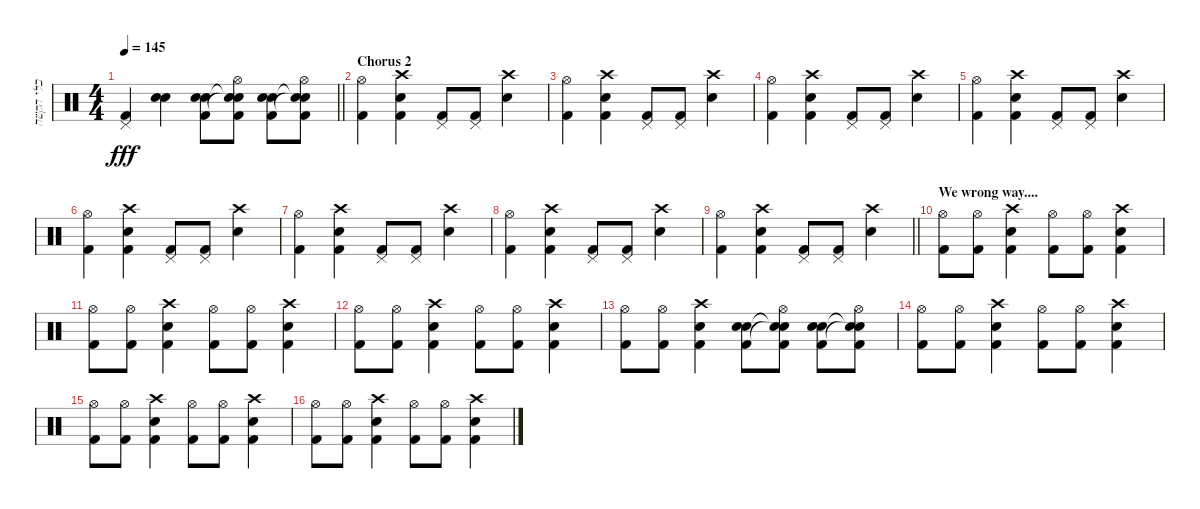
\track ("כלי הקשה" "כלי הקשה") {instrument percussion bank 127}
\staff {score}
\articulation defaults
\ts (4 4)
\tempo 145
\clef neutral
\barLineRight lightlight
\ks c
("Pedal Hi-Hat (hit)" "Kick (hit) 2").4{dy fff} ("Snare (hit) 2" "Snare (hit) 2").4 ("Snare (hit) 2" "Snare (hit) 2" "Kick (hit) 2").8 ("Hi-Hat (open)" "Snare (hit)"{t} "Snare (hit)"{t} "Kick (hit) 2").8 ("Snare (hit) 2" "Snare (hit) 2" "Kick (hit) 2").8 ("Hi-Hat (open)" "Snare (hit)"{t} "Snare (hit)"{t} "Kick (hit) 2").8 |
\section ("" "Chorus 2")
("Hi-Hat (open)" "Kick (hit) 2").4 ("Crash high (hit)" "Snare (hit) 2" "Kick (hit) 2").4 ("Pedal Hi-Hat (hit)" "Kick (hit) 2").8 ("Pedal Hi-Hat (hit)" "Kick (hit) 2").8 ("Crash high (hit)" "Snare (hit) 2").4 |
("Hi-Hat (open)" "Kick (hit) 2").4 ("Crash high (hit)" "Snare (hit) 2" "Kick (hit) 2").4 ("Pedal Hi-Hat (hit)" "Kick (hit) 2").8 ("Pedal Hi-Hat (hit)" "Kick (hit) 2").8 ("Crash high (hit)" "Snare (hit) 2").4 |
("Hi-Hat (open)" "Kick (hit) 2").4 ("Crash high (hit)" "Snare (hit) 2" "Kick (hit) 2").4 ("Pedal Hi-Hat (hit)" "Kick (hit) 2").8 ("Pedal Hi-Hat (hit)" "Kick (hit) 2").8 ("Crash high (hit)" "Snare (hit) 2").4 |
("Hi-Hat (open)" "Kick (hit) 2").4 ("Crash high (hit)" "Snare (hit) 2" "Kick (hit) 2").4 ("Pedal Hi-Hat (hit)" "Kick (hit) 2").8 ("Pedal Hi-Hat (hit)" "Kick (hit) 2").8 ("Crash high (hit)" "Snare (hit) 2").4 |
("Hi-Hat (open)" "Kick (hit) 2").4 ("Crash high (hit)" "Snare (hit) 2" "Kick (hit) 2").4 ("Pedal Hi-Hat (hit)" "Kick (hit) 2").8 ("Pedal Hi-Hat (hit)" "Kick (hit) 2").8 ("Crash high (hit)" "Snare (hit) 2").4 |
("Hi-Hat (open)" "Kick (hit) 2").4 ("Crash high (hit)" "Snare (hit) 2" "Kick (hit) 2").4 ("Pedal Hi-Hat (hit)" "Kick (hit) 2").8 ("Pedal Hi-Hat (hit)" "Kick (hit) 2").8 ("Crash high (hit)" "Snare (hit) 2").4 |
("Hi-Hat (open)" "Kick (hit) 2").4 ("Crash high (hit)" "Snare (hit) 2" "Kick (hit) 2").4 ("Pedal Hi-Hat (hit)" "Kick (hit) 2").8 ("Pedal Hi-Hat (hit)" "Kick (hit) 2").8 ("Crash high (hit)" "Snare (hit) 2").4 |
\barLineRight lightlight
("Hi-Hat (open)" "Kick (hit) 2").4 ("Crash high (hit)" "Snare (hit) 2" "Kick (hit) 2").4 ("Pedal Hi-Hat (hit)" "Kick (hit) 2").8 ("Pedal Hi-Hat (hit)" "Kick (hit) 2").8 ("Crash high (hit)" "Snare (hit) 2").4 |
\section ("" "We wrong way....")
("Hi-Hat (open)" "Kick (hit) 2").8 ("Hi-Hat (open)" "Kick (hit) 2").8 ("Crash high (hit)" "Snare (hit) 2" "Kick (hit) 2").4 ("Hi-Hat (open)" "Kick (hit) 2").8 ("Hi-Hat (open)" "Kick (hit) 2").8 ("Crash high (hit)" "Snare (hit) 2" "Kick (hit) 2").4 |
("Hi-Hat (open)" "Kick (hit) 2").8 ("Hi-Hat (open)" "Kick (hit) 2").8 ("Crash high (hit)" "Snare (hit) 2" "Kick (hit) 2").4 ("Hi-Hat (open)" "Kick (hit) 2").8 ("Hi-Hat (open)" "Kick (hit) 2").8 ("Crash high (hit)" "Snare (hit) 2" "Kick (hit) 2").4 |
("Hi-Hat (open)" "Kick (hit) 2").8 ("Hi-Hat (open)" "Kick (hit) 2").8 ("Crash high (hit)" "Snare (hit) 2" "Kick (hit) 2").4 ("Hi-Hat (open)" "Kick (hit) 2").8 ("Hi-Hat (open)" "Kick (hit) 2").8 ("Crash high (hit)" "Snare (hit) 2" "Kick (hit) 2").4 |
("Hi-Hat (open)" "Kick (hit) 2").8 ("Hi-Hat (open)" "Kick (hit) 2").8 ("Crash high (hit)" "Snare (hit) 2" "Kick (hit) 2").4 ("Snare (hit) 2" "Snare (hit) 2" "Kick (hit) 2").8 ("Hi-Hat (open)" "Snare (hit)"{t} "Snare (hit)"{t} "Kick (hit) 2").8 ("Snare (hit) 2" "Snare (hit) 2" "Kick (hit) 2").8 ("Hi-Hat (open)" "Snare (hit)"{t} "Snare (hit)"{t} "Kick (hit) 2").8 |
("Hi-Hat (open)" "Kick (hit) 2").8 ("Hi-Hat (open)" "Kick (hit) 2").8 ("Crash high (hit)" "Snare (hit) 2" "Kick (hit) 2").4 ("Hi-Hat (open)" "Kick (hit) 2").8 ("Hi-Hat (open)" "Kick (hit) 2").8 ("Crash high (hit)" "Snare (hit) 2" "Kick (hit) 2").4 |
("Hi-Hat (open)" "Kick (hit) 2").8 ("Hi-Hat (open)" "Kick (hit) 2").8 ("Crash high (hit)" "Snare (hit) 2" "Kick (hit) 2").4 ("Hi-Hat (open)" "Kick (hit) 2").8 ("Hi-Hat (open)" "Kick (hit) 2").8 ("Crash high (hit)" "Snare (hit) 2" "Kick (hit) 2").4 |
("Hi-Hat (open)" "Kick (hit) 2").8 ("Hi-Hat (open)" "Kick (hit) 2").8 ("Crash high (hit)" "Snare (hit) 2" "Kick (hit) 2").4 ("Hi-Hat (open)" "Kick (hit) 2").8 ("Hi-Hat (open)" "Kick (hit) 2").8 ("Crash high (hit)" "Snare (hit) 2" "Kick (hit) 2").4
